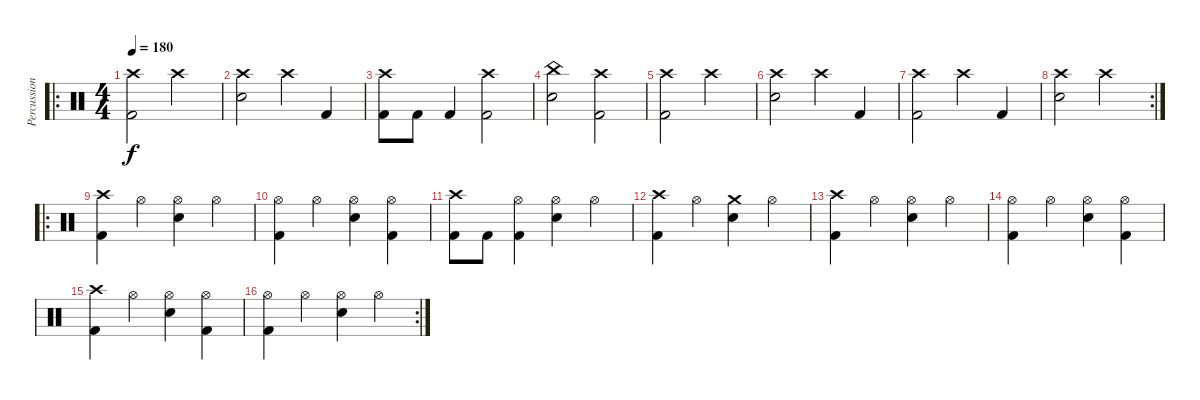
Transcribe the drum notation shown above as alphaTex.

\track ("Percussions" "Percussion") {instrument percussion}
\staff {score}
\articulation defaults
\ro
\ts (4 4)
\section ("" "")
\tempo 180
\clef neutral
\ks c
("Crash high (hit)" "Kick (hit) 2").2{dy f} "Crash high (hit)".2 |
("Crash high (hit)" "Electric Snare (hit)").2 "Crash high (hit)".4 "Kick (hit) 2".4 |
("Crash high (hit)" "Kick (hit) 2").8 "Kick (hit) 2".8 "Kick (hit) 2".4 ("Crash high (hit)" "Kick (hit) 2").2 |
("China (hit)" "Electric Snare (hit)").2 ("Crash high (hit)" "Kick (hit) 2").2 |
("Crash high (hit)" "Kick (hit) 2").2 "Crash high (hit)".2 |
("Crash high (hit)" "Electric Snare (hit)").2 "Crash high (hit)".4 "Kick (hit) 2".4 |
("Crash high (hit)" "Kick (hit) 2").2 "Crash high (hit)".4 "Kick (hit) 2".4 |
\rc 2
("Crash high (hit)" "Electric Snare (hit)").2 "Crash high (hit)".2 |
\ro
\section ("" "")
("Crash high (hit)" "Kick (hit) 2").4 "Hi-Hat (open)".4 ("Hi-Hat (open)" "Electric Snare (hit)").4 "Hi-Hat (open)".4 |
("Hi-Hat (open)" "Kick (hit) 2").4 "Hi-Hat (open)".4 ("Hi-Hat (open)" "Electric Snare (hit)").4 ("Hi-Hat (open)" "Kick (hit) 2").4 |
("Crash high (hit)" "Kick (hit) 2").8 "Kick (hit) 2".8 ("Hi-Hat (open)" "Kick (hit) 2").4 ("Hi-Hat (open)" "Electric Snare (hit)").4 "Hi-Hat (open)".4 |
("Crash high (hit)" "Kick (hit) 2").4 "Hi-Hat (open)".4 ("Crash medium (hit)" "Electric Snare (hit)").4 "Hi-Hat (open)".4 |
("Crash high (hit)" "Kick (hit) 2").4 "Hi-Hat (open)".4 ("Hi-Hat (open)" "Electric Snare (hit)").4 "Hi-Hat (open)".4 |
("Hi-Hat (open)" "Kick (hit) 2").4 "Hi-Hat (open)".4 ("Hi-Hat (open)" "Electric Snare (hit)").4 ("Hi-Hat (open)" "Kick (hit) 2").4 |
("Crash high (hit)" "Kick (hit) 2").4 "Hi-Hat (open)".4 ("Hi-Hat (open)" "Electric Snare (hit)").4 ("Hi-Hat (open)" "Kick (hit) 2").4 |
\rc 2
("Hi-Hat (open)" "Kick (hit) 2").4 "Hi-Hat (open)".4 ("Hi-Hat (open)" "Electric Snare (hit)").4 "Hi-Hat (open)".4
